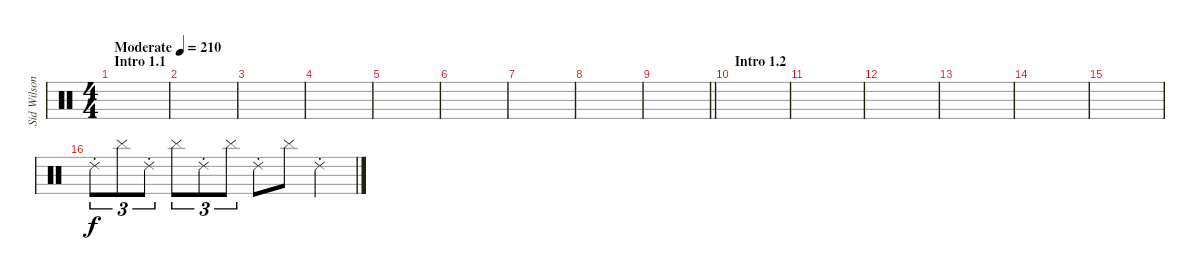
\track ("Sid Wilson" "Sid Wilson") {instrument percussion}
\staff {score}
\articulation defaults
\ts (4 4)
\section ("" "Intro 1.1")
\tempo (210 "Moderate")
\clef neutral
\ks c
|
|
|
|
|
|
|
|
\barLineRight lightlight
|
\section ("" "Intro 1.2")
|
|
|
|
|
|
"Ride (choke) 2".8{tu (3 2)} "Cymbal (hit)".8{tu (3 2)} "Ride (choke) 2".8{tu (3 2)} "Cymbal (hit)".8{tu (3 2)} "Ride (choke) 2".8{tu (3 2)} "Cymbal (hit)".8{tu (3 2)} "Ride (choke) 2".8 "Cymbal (hit)".8 "Ride (choke) 2".4
